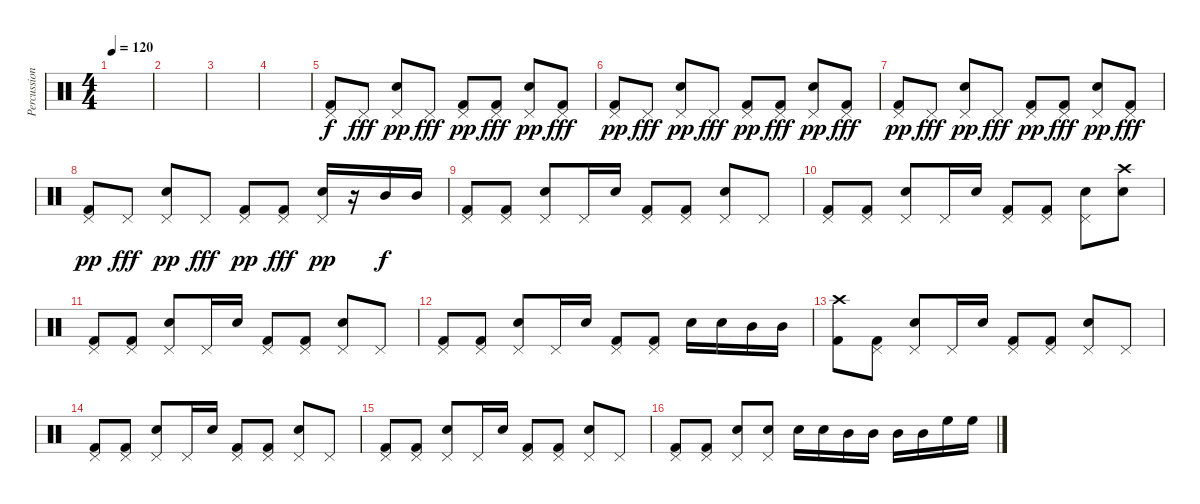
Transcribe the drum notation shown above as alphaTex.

\track ("Percussions" "Percussion") {instrument percussion}
\staff {score}
\articulation defaults
\ts (4 4)
\tempo 120
\clef neutral
\ks c
|
|
|
|
("Pedal Hi-Hat (hit)" "Kick (hit) 2").8 "Pedal Hi-Hat (hit)".8{dy fff} ("Pedal Hi-Hat (hit)" "Snare (hit) 2").8{dy pp} "Pedal Hi-Hat (hit)".8{dy fff} ("Pedal Hi-Hat (hit)" "Kick (hit) 2").8{dy pp} ("Pedal Hi-Hat (hit)" "Kick (hit) 2").8{dy fff} ("Pedal Hi-Hat (hit)" "Snare (hit) 2").8{dy pp} ("Pedal Hi-Hat (hit)" "Kick (hit) 2").8{dy fff} |
("Pedal Hi-Hat (hit)" "Kick (hit) 2").8{dy pp} "Pedal Hi-Hat (hit)".8{dy fff} ("Pedal Hi-Hat (hit)" "Snare (hit) 2").8{dy pp} "Pedal Hi-Hat (hit)".8{dy fff} ("Pedal Hi-Hat (hit)" "Kick (hit) 2").8{dy pp} ("Pedal Hi-Hat (hit)" "Kick (hit) 2").8{dy fff} ("Pedal Hi-Hat (hit)" "Snare (hit) 2").8{dy pp} ("Pedal Hi-Hat (hit)" "Kick (hit) 2").8{dy fff} |
("Pedal Hi-Hat (hit)" "Kick (hit) 2").8{dy pp} "Pedal Hi-Hat (hit)".8{dy fff} ("Pedal Hi-Hat (hit)" "Snare (hit) 2").8{dy pp} "Pedal Hi-Hat (hit)".8{dy fff} ("Pedal Hi-Hat (hit)" "Kick (hit) 2").8{dy pp} ("Pedal Hi-Hat (hit)" "Kick (hit) 2").8{dy fff} ("Pedal Hi-Hat (hit)" "Snare (hit) 2").8{dy pp} ("Pedal Hi-Hat (hit)" "Kick (hit) 2").8{dy fff} |
("Pedal Hi-Hat (hit)" "Kick (hit) 2").8{dy pp} "Pedal Hi-Hat (hit)".8{dy fff} ("Pedal Hi-Hat (hit)" "Snare (hit) 2").8{dy pp} "Pedal Hi-Hat (hit)".8{dy fff} ("Pedal Hi-Hat (hit)" "Kick (hit) 2").8{dy pp} ("Pedal Hi-Hat (hit)" "Kick (hit) 2").8{dy fff} ("Pedal Hi-Hat (hit)" "Snare (hit) 2").16{dy pp} r.16 "Mid Tom (hit)".16{dy f} "Mid Tom (hit)".16 |
("Pedal Hi-Hat (hit)" "Kick (hit) 2").8 ("Pedal Hi-Hat (hit)" "Kick (hit) 2").8 ("Pedal Hi-Hat (hit)" "Snare (hit) 2").8 "Pedal Hi-Hat (hit)".16 "Snare (hit) 2".16 ("Pedal Hi-Hat (hit)" "Kick (hit) 2").8 ("Pedal Hi-Hat (hit)" "Kick (hit) 2").8 ("Pedal Hi-Hat (hit)" "Snare (hit) 2").8 "Pedal Hi-Hat (hit)".8 |
("Pedal Hi-Hat (hit)" "Kick (hit) 2").8 ("Pedal Hi-Hat (hit)" "Kick (hit) 2").8 ("Pedal Hi-Hat (hit)" "Snare (hit) 2").8 "Pedal Hi-Hat (hit)".16 "Snare (hit) 2".16 ("Pedal Hi-Hat (hit)" "Kick (hit) 2").8 ("Pedal Hi-Hat (hit)" "Kick (hit) 2").8 ("Pedal Hi-Hat (hit)" "Snare (hit) 2").8 ("Crash high (hit)" "Snare (hit) 2").8 |
("Pedal Hi-Hat (hit)" "Kick (hit) 2").8 ("Pedal Hi-Hat (hit)" "Kick (hit) 2").8 ("Pedal Hi-Hat (hit)" "Snare (hit) 2").8 "Pedal Hi-Hat (hit)".16 "Snare (hit) 2".16 ("Pedal Hi-Hat (hit)" "Kick (hit) 2").8 ("Pedal Hi-Hat (hit)" "Kick (hit) 2").8 ("Pedal Hi-Hat (hit)" "Snare (hit) 2").8 "Pedal Hi-Hat (hit)".8 |
("Pedal Hi-Hat (hit)" "Kick (hit) 2").8 ("Pedal Hi-Hat (hit)" "Kick (hit) 2").8 ("Pedal Hi-Hat (hit)" "Snare (hit) 2").8 "Pedal Hi-Hat (hit)".16 "Snare (hit) 2".16 ("Pedal Hi-Hat (hit)" "Kick (hit) 2").8 ("Pedal Hi-Hat (hit)" "Kick (hit) 2").8 "Snare (hit) 2".16 "Snare (hit) 2".16 "Mid Tom (hit)".16 "Mid Tom (hit)".16 |
("Crash high (hit)" "Kick (hit) 2").8 ("Pedal Hi-Hat (hit)" "Kick (hit) 2").8 ("Pedal Hi-Hat (hit)" "Snare (hit) 2").8 "Pedal Hi-Hat (hit)".16 "Snare (hit) 2".16 ("Pedal Hi-Hat (hit)" "Kick (hit) 2").8 ("Pedal Hi-Hat (hit)" "Kick (hit) 2").8 ("Pedal Hi-Hat (hit)" "Snare (hit) 2").8 "Pedal Hi-Hat (hit)".8 |
("Pedal Hi-Hat (hit)" "Kick (hit) 2").8 ("Pedal Hi-Hat (hit)" "Kick (hit) 2").8 ("Pedal Hi-Hat (hit)" "Snare (hit) 2").8 "Pedal Hi-Hat (hit)".16 "Snare (hit) 2".16 ("Pedal Hi-Hat (hit)" "Kick (hit) 2").8 ("Pedal Hi-Hat (hit)" "Kick (hit) 2").8 ("Pedal Hi-Hat (hit)" "Snare (hit) 2").8 "Pedal Hi-Hat (hit)".8 |
("Pedal Hi-Hat (hit)" "Kick (hit) 2").8 ("Pedal Hi-Hat (hit)" "Kick (hit) 2").8 ("Pedal Hi-Hat (hit)" "Snare (hit) 2").8 "Pedal Hi-Hat (hit)".16 "Snare (hit) 2".16 ("Pedal Hi-Hat (hit)" "Kick (hit) 2").8 ("Pedal Hi-Hat (hit)" "Kick (hit) 2").8 ("Pedal Hi-Hat (hit)" "Snare (hit) 2").8 "Pedal Hi-Hat (hit)".8 |
("Pedal Hi-Hat (hit)" "Kick (hit) 2").8 ("Pedal Hi-Hat (hit)" "Kick (hit) 2").8 ("Pedal Hi-Hat (hit)" "Snare (hit) 2").8 ("Pedal Hi-Hat (hit)" "Snare (hit) 2").8 "Snare (hit) 2".16 "Snare (hit) 2".16 "Mid Tom (hit)".16 "Mid Tom (hit)".16 "Mid Tom (hit)".16 "Mid Tom (hit)".16 "High Floor Tom (hit)".16 "High Floor Tom (hit)".16
